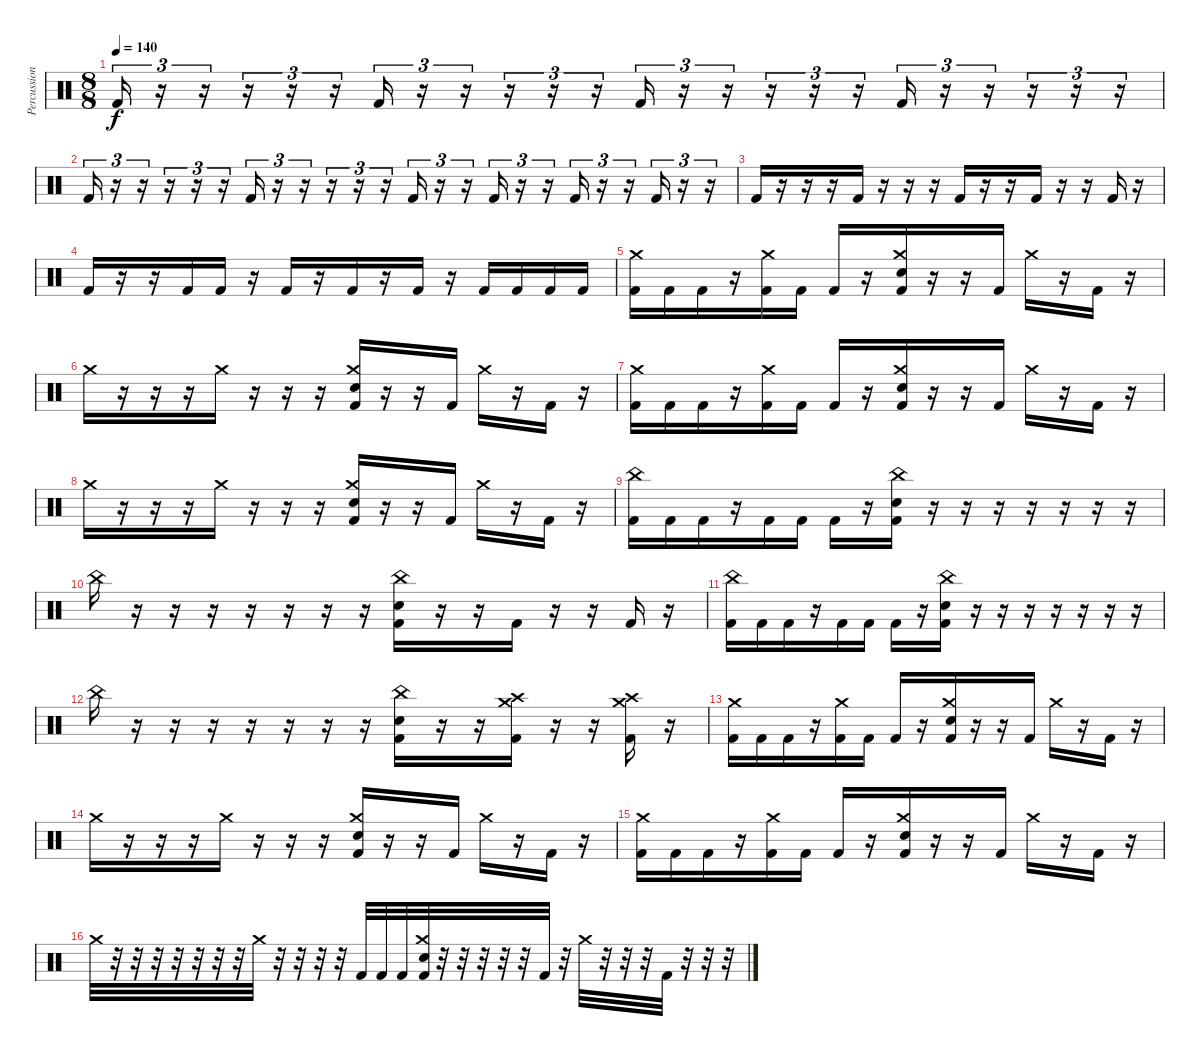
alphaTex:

\track ("Percussion" "Percussion") {instrument percussion}
\staff {score}
\articulation defaults
\ts (8 8)
\tempo 140
\clef neutral
\ks c "Kick (hit) 2".16{tu (3 2) dy f}
r.16{tu (3 2)} r.16{tu (3 2)} r.16{tu (3 2)} r.16{tu (3 2)} r.16{tu (3 2)} "Kick (hit) 2".16{tu (3 2)} r.16{tu (3 2)} r.16{tu (3 2)} r.16{tu (3 2)} r.16{tu (3 2)} r.16{tu (3 2)} "Kick (hit) 2".16{tu (3 2)} r.16{tu (3 2)} r.16{tu (3 2)} r.16{tu (3 2)} r.16{tu (3 2)} r.16{tu (3 2)} "Kick (hit) 2".16{tu (3 2)} r.16{tu (3 2)} r.16{tu (3 2)} r.16{tu (3 2)} r.16{tu (3 2)} r.16{tu (3 2)} |
"Kick (hit) 2".16{tu (3 2)} r.16{tu (3 2)} r.16{tu (3 2)} r.16{tu (3 2)} r.16{tu (3 2)} r.16{tu (3 2)} "Kick (hit) 2".16{tu (3 2)} r.16{tu (3 2)} r.16{tu (3 2)} r.16{tu (3 2)} r.16{tu (3 2)} r.16{tu (3 2)} "Kick (hit) 2".16{tu (3 2)} r.16{tu (3 2)} r.16{tu (3 2)} "Kick (hit) 2".16{tu (3 2)} r.16{tu (3 2)} r.16{tu (3 2)} "Kick (hit) 2".16{tu (3 2)} r.16{tu (3 2)} r.16{tu (3 2)} "Kick (hit) 2".16{tu (3 2)} r.16{tu (3 2)} r.16{tu (3 2)} |
"Kick (hit) 2".16 r.16 r.16 r.16 "Kick (hit) 2".16 r.16 r.16 r.16 "Kick (hit) 2".16 r.16 r.16 "Kick (hit) 2".16 r.16 r.16 "Kick (hit) 2".16 r.16 |
"Kick (hit) 2".16 r.16 r.16 "Kick (hit) 2".16 "Kick (hit) 2".16 r.16 "Kick (hit) 2".16 r.16 "Kick (hit) 2".16 r.16 "Kick (hit) 2".16 r.16 "Kick (hit) 2".16 "Kick (hit) 2".16 "Kick (hit) 2".16 "Kick (hit) 2".16 |
("Crash medium (hit)" "Kick (hit) 2").16 "Kick (hit) 2".16 "Kick (hit) 2".16 r.16 ("Crash medium (hit)" "Kick (hit) 2").16 "Kick (hit) 2".16 "Kick (hit) 2".16 r.16 ("Crash medium (hit)" "Snare (hit) 2" "Kick (hit) 2").16 r.16 r.16 "Kick (hit) 2".16 "Crash medium (hit)".16 r.16 "Kick (hit) 2".16 r.16 |
"Crash medium (hit)".16 r.16 r.16 r.16 "Crash medium (hit)".16 r.16 r.16 r.16 ("Crash medium (hit)" "Snare (hit) 2" "Kick (hit) 2").16 r.16 r.16 "Kick (hit) 2".16 "Crash medium (hit)".16 r.16 "Kick (hit) 2".16 r.16 |
("Crash medium (hit)" "Kick (hit) 2").16 "Kick (hit) 2".16 "Kick (hit) 2".16 r.16 ("Crash medium (hit)" "Kick (hit) 2").16 "Kick (hit) 2".16 "Kick (hit) 2".16 r.16 ("Crash medium (hit)" "Snare (hit) 2" "Kick (hit) 2").16 r.16 r.16 "Kick (hit) 2".16 "Crash medium (hit)".16 r.16 "Kick (hit) 2".16 r.16 |
"Crash medium (hit)".16 r.16 r.16 r.16 "Crash medium (hit)".16 r.16 r.16 r.16 ("Crash medium (hit)" "Snare (hit) 2" "Kick (hit) 2").16 r.16 r.16 "Kick (hit) 2".16 "Crash medium (hit)".16 r.16 "Kick (hit) 2".16 r.16 |
("China (hit)" "Kick (hit) 2").16 "Kick (hit) 2".16 "Kick (hit) 2".16 r.16 "Kick (hit) 2".16 "Kick (hit) 2".16 "Kick (hit) 2".16 r.16 ("China (hit)" "Snare (hit) 2" "Kick (hit) 2").16 r.16 r.16 r.16 r.16 r.16 r.16 r.16 |
"China (hit)".16 r.16 r.16 r.16 r.16 r.16 r.16 r.16 ("China (hit)" "Snare (hit) 2" "Kick (hit) 2").16 r.16 r.16 "Kick (hit) 2".16 r.16 r.16 "Kick (hit) 2".16 r.16 |
("China (hit)" "Kick (hit) 2").16 "Kick (hit) 2".16 "Kick (hit) 2".16 r.16 "Kick (hit) 2".16 "Kick (hit) 2".16 "Kick (hit) 2".16 r.16 ("China (hit)" "Snare (hit) 2" "Kick (hit) 2").16 r.16 r.16 r.16 r.16 r.16 r.16 r.16 |
"China (hit)".16 r.16 r.16 r.16 r.16 r.16 r.16 r.16 ("China (hit)" "Snare (hit) 2" "Kick (hit) 2").16 r.16 r.16 ("Crash medium (hit)" "Crash high (hit)" "Kick (hit) 2").16 r.16 r.16 ("Crash medium (hit)" "Crash high (hit)" "Kick (hit) 2").16 r.16 |
("Crash medium (hit)" "Kick (hit) 2").16 "Kick (hit) 2".16 "Kick (hit) 2".16 r.16 ("Crash medium (hit)" "Kick (hit) 2").16 "Kick (hit) 2".16 "Kick (hit) 2".16 r.16 ("Crash medium (hit)" "Snare (hit) 2" "Kick (hit) 2").16 r.16 r.16 "Kick (hit) 2".16 "Crash medium (hit)".16 r.16 "Kick (hit) 2".16 r.16 |
"Crash medium (hit)".16 r.16 r.16 r.16 "Crash medium (hit)".16 r.16 r.16 r.16 ("Crash medium (hit)" "Snare (hit) 2" "Kick (hit) 2").16 r.16 r.16 "Kick (hit) 2".16 "Crash medium (hit)".16 r.16 "Kick (hit) 2".16 r.16 |
("Crash medium (hit)" "Kick (hit) 2").16 "Kick (hit) 2".16 "Kick (hit) 2".16 r.16 ("Crash medium (hit)" "Kick (hit) 2").16 "Kick (hit) 2".16 "Kick (hit) 2".16 r.16 ("Crash medium (hit)" "Snare (hit) 2" "Kick (hit) 2").16 r.16 r.16 "Kick (hit) 2".16 "Crash medium (hit)".16 r.16 "Kick (hit) 2".16 r.16 |
"Crash medium (hit)".32 r.32 r.32 r.32 r.32 r.32 r.32 r.32 "Crash medium (hit)".32 r.32 r.32 r.32 r.32 "Kick (hit) 2".32 "Kick (hit) 2".32 "Kick (hit) 2".32 ("Crash medium (hit)" "Snare (hit) 2" "Kick (hit) 2").32 r.32 r.32 r.32 r.32 r.32 "Kick (hit) 2".32 r.32 "Crash medium (hit)".32 r.32 r.32 r.32 "Kick (hit) 2".32 r.32 r.32 r.32
